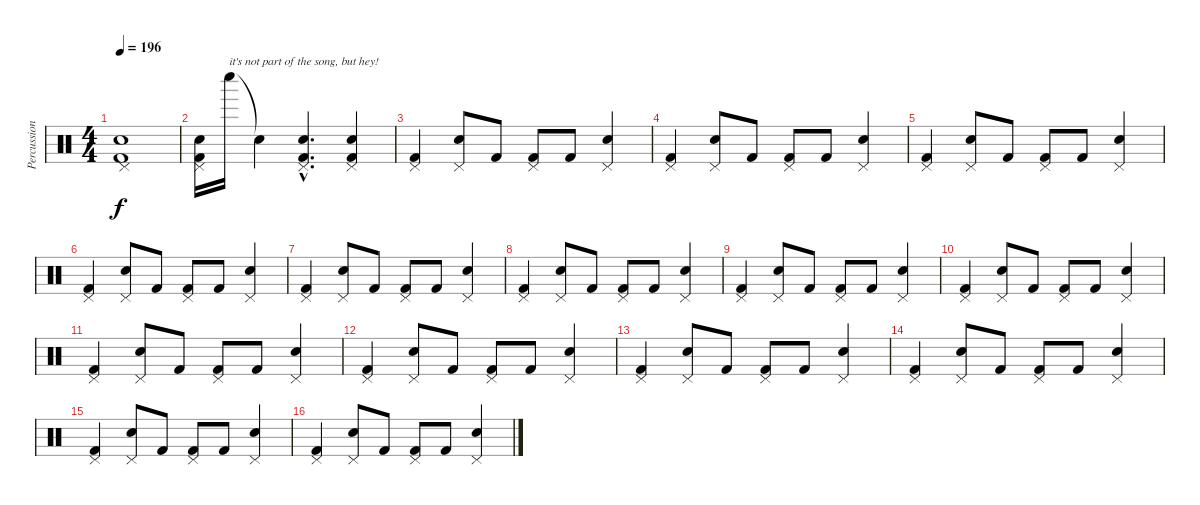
\track ("Percussion" "Percussion") {instrument percussion}
\staff {score}
\articulation defaults
\ts (4 4)
\tempo 196
\clef neutral
\ks c
("Electric Snare (hit)" "Pedal Hi-Hat (hit)" "Kick (hit) 2").1{dy f} |
("Electric Snare (hit)" "Pedal Hi-Hat (hit)" "Kick (hit) 2").16 "Whistle low (hit)".16{txt "it's not part of the song, but hey!"} "Snare (hit)"{t}.4 ("Electric Snare (hit)"{hac} "Pedal Hi-Hat (hit)"{hac} "Kick (hit) 2"{hac}).4{d} ("Electric Snare (hit)" "Pedal Hi-Hat (hit)" "Kick (hit) 2").4 |
("Pedal Hi-Hat (hit)" "Kick (hit) 2").4 ("Electric Snare (hit)" "Pedal Hi-Hat (hit)").8 "Kick (hit) 2".8 ("Pedal Hi-Hat (hit)" "Kick (hit) 2").8 "Kick (hit) 2".8 ("Electric Snare (hit)" "Pedal Hi-Hat (hit)").4 |
("Pedal Hi-Hat (hit)" "Kick (hit) 2").4 ("Electric Snare (hit)" "Pedal Hi-Hat (hit)").8 "Kick (hit) 2".8 ("Pedal Hi-Hat (hit)" "Kick (hit) 2").8 "Kick (hit) 2".8 ("Electric Snare (hit)" "Pedal Hi-Hat (hit)").4 |
("Pedal Hi-Hat (hit)" "Kick (hit) 2").4 ("Electric Snare (hit)" "Pedal Hi-Hat (hit)").8 "Kick (hit) 2".8 ("Pedal Hi-Hat (hit)" "Kick (hit) 2").8 "Kick (hit) 2".8 ("Electric Snare (hit)" "Pedal Hi-Hat (hit)").4 |
("Pedal Hi-Hat (hit)" "Kick (hit) 2").4 ("Electric Snare (hit)" "Pedal Hi-Hat (hit)").8 "Kick (hit) 2".8 ("Pedal Hi-Hat (hit)" "Kick (hit) 2").8 "Kick (hit) 2".8 ("Electric Snare (hit)" "Pedal Hi-Hat (hit)").4 |
("Pedal Hi-Hat (hit)" "Kick (hit) 2").4 ("Electric Snare (hit)" "Pedal Hi-Hat (hit)").8 "Kick (hit) 2".8 ("Pedal Hi-Hat (hit)" "Kick (hit) 2").8 "Kick (hit) 2".8 ("Electric Snare (hit)" "Pedal Hi-Hat (hit)").4 |
("Pedal Hi-Hat (hit)" "Kick (hit) 2").4 ("Electric Snare (hit)" "Pedal Hi-Hat (hit)").8 "Kick (hit) 2".8 ("Pedal Hi-Hat (hit)" "Kick (hit) 2").8 "Kick (hit) 2".8 ("Electric Snare (hit)" "Pedal Hi-Hat (hit)").4 |
("Pedal Hi-Hat (hit)" "Kick (hit) 2").4 ("Electric Snare (hit)" "Pedal Hi-Hat (hit)").8 "Kick (hit) 2".8 ("Pedal Hi-Hat (hit)" "Kick (hit) 2").8 "Kick (hit) 2".8 ("Electric Snare (hit)" "Pedal Hi-Hat (hit)").4 |
("Pedal Hi-Hat (hit)" "Kick (hit) 2").4 ("Electric Snare (hit)" "Pedal Hi-Hat (hit)").8 "Kick (hit) 2".8 ("Pedal Hi-Hat (hit)" "Kick (hit) 2").8 "Kick (hit) 2".8 ("Electric Snare (hit)" "Pedal Hi-Hat (hit)").4 |
("Pedal Hi-Hat (hit)" "Kick (hit) 2").4 ("Electric Snare (hit)" "Pedal Hi-Hat (hit)").8 "Kick (hit) 2".8 ("Pedal Hi-Hat (hit)" "Kick (hit) 2").8 "Kick (hit) 2".8 ("Electric Snare (hit)" "Pedal Hi-Hat (hit)").4 |
("Pedal Hi-Hat (hit)" "Kick (hit) 2").4 ("Electric Snare (hit)" "Pedal Hi-Hat (hit)").8 "Kick (hit) 2".8 ("Pedal Hi-Hat (hit)" "Kick (hit) 2").8 "Kick (hit) 2".8 ("Electric Snare (hit)" "Pedal Hi-Hat (hit)").4 |
("Pedal Hi-Hat (hit)" "Kick (hit) 2").4 ("Electric Snare (hit)" "Pedal Hi-Hat (hit)").8 "Kick (hit) 2".8 ("Pedal Hi-Hat (hit)" "Kick (hit) 2").8 "Kick (hit) 2".8 ("Electric Snare (hit)" "Pedal Hi-Hat (hit)").4 |
("Pedal Hi-Hat (hit)" "Kick (hit) 2").4 ("Electric Snare (hit)" "Pedal Hi-Hat (hit)").8 "Kick (hit) 2".8 ("Pedal Hi-Hat (hit)" "Kick (hit) 2").8 "Kick (hit) 2".8 ("Electric Snare (hit)" "Pedal Hi-Hat (hit)").4 |
("Pedal Hi-Hat (hit)" "Kick (hit) 2").4 ("Electric Snare (hit)" "Pedal Hi-Hat (hit)").8 "Kick (hit) 2".8 ("Pedal Hi-Hat (hit)" "Kick (hit) 2").8 "Kick (hit) 2".8 ("Electric Snare (hit)" "Pedal Hi-Hat (hit)").4 |
("Pedal Hi-Hat (hit)" "Kick (hit) 2").4 ("Electric Snare (hit)" "Pedal Hi-Hat (hit)").8 "Kick (hit) 2".8 ("Pedal Hi-Hat (hit)" "Kick (hit) 2").8 "Kick (hit) 2".8 ("Electric Snare (hit)" "Pedal Hi-Hat (hit)").4
